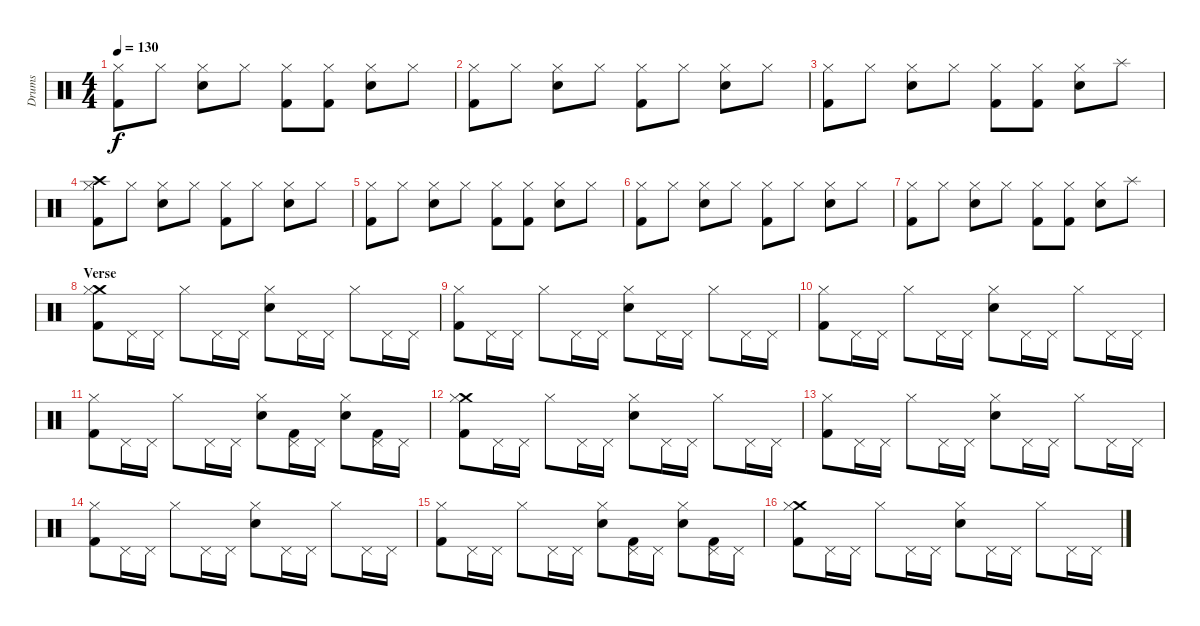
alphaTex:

\track ("Drums" "Drums") {instrument percussion}
\staff {score}
\articulation defaults
\ts (4 4)
\tempo 130
\clef neutral
\ks c
("Hi-Hat (closed)" "Kick (hit) 2").8{dy f} "Hi-Hat (closed)".8 ("Hi-Hat (closed)" "Electric Snare (hit)").8 "Hi-Hat (closed)".8 ("Hi-Hat (closed)" "Kick (hit) 2").8 ("Hi-Hat (closed)" "Kick (hit) 2").8 ("Hi-Hat (closed)" "Electric Snare (hit)").8 "Hi-Hat (closed)".8 |
("Hi-Hat (closed)" "Kick (hit) 2").8 "Hi-Hat (closed)".8 ("Hi-Hat (closed)" "Electric Snare (hit)").8 "Hi-Hat (closed)".8 ("Hi-Hat (closed)" "Kick (hit) 2").8 "Hi-Hat (closed)".8 ("Hi-Hat (closed)" "Electric Snare (hit)").8 "Hi-Hat (closed)".8 |
("Hi-Hat (closed)" "Kick (hit) 2").8 "Hi-Hat (closed)".8 ("Hi-Hat (closed)" "Electric Snare (hit)").8 "Hi-Hat (closed)".8 ("Hi-Hat (closed)" "Kick (hit) 2").8 ("Hi-Hat (closed)" "Kick (hit) 2").8 ("Hi-Hat (closed)" "Electric Snare (hit)").8 "Splash (hit)".8 |
("Crash high (hit)" "Hi-Hat (closed)" "Kick (hit) 2").8 "Hi-Hat (closed)".8 ("Hi-Hat (closed)" "Electric Snare (hit)").8 "Hi-Hat (closed)".8 ("Hi-Hat (closed)" "Kick (hit) 2").8 "Hi-Hat (closed)".8 ("Hi-Hat (closed)" "Electric Snare (hit)").8 "Hi-Hat (closed)".8 |
("Hi-Hat (closed)" "Kick (hit) 2").8 "Hi-Hat (closed)".8 ("Hi-Hat (closed)" "Electric Snare (hit)").8 "Hi-Hat (closed)".8 ("Hi-Hat (closed)" "Kick (hit) 2").8 ("Hi-Hat (closed)" "Kick (hit) 2").8 ("Hi-Hat (closed)" "Electric Snare (hit)").8 "Hi-Hat (closed)".8 |
("Hi-Hat (closed)" "Kick (hit) 2").8 "Hi-Hat (closed)".8 ("Hi-Hat (closed)" "Electric Snare (hit)").8 "Hi-Hat (closed)".8 ("Hi-Hat (closed)" "Kick (hit) 2").8 "Hi-Hat (closed)".8 ("Hi-Hat (closed)" "Electric Snare (hit)").8 "Hi-Hat (closed)".8 |
("Hi-Hat (closed)" "Kick (hit) 2").8 "Hi-Hat (closed)".8 ("Hi-Hat (closed)" "Electric Snare (hit)").8 "Hi-Hat (closed)".8 ("Hi-Hat (closed)" "Kick (hit) 2").8 ("Hi-Hat (closed)" "Kick (hit) 2").8 ("Hi-Hat (closed)" "Electric Snare (hit)").8 "Splash (hit)".8 |
\section ("" "Verse")
("Crash medium (hit)" "Hi-Hat (closed)" "Kick (hit) 2").8 "Pedal Hi-Hat (hit)".16 "Pedal Hi-Hat (hit)".16 "Hi-Hat (closed)".8 "Pedal Hi-Hat (hit)".16 "Pedal Hi-Hat (hit)".16 ("Hi-Hat (closed)" "Electric Snare (hit)").8 "Pedal Hi-Hat (hit)".16 "Pedal Hi-Hat (hit)".16 "Hi-Hat (closed)".8 "Pedal Hi-Hat (hit)".16 "Pedal Hi-Hat (hit)".16 |
("Hi-Hat (closed)" "Kick (hit) 2").8 "Pedal Hi-Hat (hit)".16 "Pedal Hi-Hat (hit)".16 "Hi-Hat (closed)".8 "Pedal Hi-Hat (hit)".16 "Pedal Hi-Hat (hit)".16 ("Hi-Hat (closed)" "Electric Snare (hit)").8 "Pedal Hi-Hat (hit)".16 "Pedal Hi-Hat (hit)".16 "Hi-Hat (closed)".8 "Pedal Hi-Hat (hit)".16 "Pedal Hi-Hat (hit)".16 |
("Hi-Hat (closed)" "Kick (hit) 2").8 "Pedal Hi-Hat (hit)".16 "Pedal Hi-Hat (hit)".16 "Hi-Hat (closed)".8 "Pedal Hi-Hat (hit)".16 "Pedal Hi-Hat (hit)".16 ("Hi-Hat (closed)" "Electric Snare (hit)").8 "Pedal Hi-Hat (hit)".16 "Pedal Hi-Hat (hit)".16 "Hi-Hat (closed)".8 "Pedal Hi-Hat (hit)".16 "Pedal Hi-Hat (hit)".16 |
("Hi-Hat (closed)" "Kick (hit) 2").8 "Pedal Hi-Hat (hit)".16 "Pedal Hi-Hat (hit)".16 "Hi-Hat (closed)".8 "Pedal Hi-Hat (hit)".16 "Pedal Hi-Hat (hit)".16 ("Hi-Hat (closed)" "Electric Snare (hit)").8 ("Pedal Hi-Hat (hit)" "Kick (hit) 2").16 "Pedal Hi-Hat (hit)".16 ("Hi-Hat (closed)" "Electric Snare (hit)").8 ("Pedal Hi-Hat (hit)" "Kick (hit) 2").16 "Pedal Hi-Hat (hit)".16 |
("Crash medium (hit)" "Hi-Hat (closed)" "Kick (hit) 2").8 "Pedal Hi-Hat (hit)".16 "Pedal Hi-Hat (hit)".16 "Hi-Hat (closed)".8 "Pedal Hi-Hat (hit)".16 "Pedal Hi-Hat (hit)".16 ("Hi-Hat (closed)" "Electric Snare (hit)").8 "Pedal Hi-Hat (hit)".16 "Pedal Hi-Hat (hit)".16 "Hi-Hat (closed)".8 "Pedal Hi-Hat (hit)".16 "Pedal Hi-Hat (hit)".16 |
("Hi-Hat (closed)" "Kick (hit) 2").8 "Pedal Hi-Hat (hit)".16 "Pedal Hi-Hat (hit)".16 "Hi-Hat (closed)".8 "Pedal Hi-Hat (hit)".16 "Pedal Hi-Hat (hit)".16 ("Hi-Hat (closed)" "Electric Snare (hit)").8 "Pedal Hi-Hat (hit)".16 "Pedal Hi-Hat (hit)".16 "Hi-Hat (closed)".8 "Pedal Hi-Hat (hit)".16 "Pedal Hi-Hat (hit)".16 |
("Hi-Hat (closed)" "Kick (hit) 2").8 "Pedal Hi-Hat (hit)".16 "Pedal Hi-Hat (hit)".16 "Hi-Hat (closed)".8 "Pedal Hi-Hat (hit)".16 "Pedal Hi-Hat (hit)".16 ("Hi-Hat (closed)" "Electric Snare (hit)").8 "Pedal Hi-Hat (hit)".16 "Pedal Hi-Hat (hit)".16 "Hi-Hat (closed)".8 "Pedal Hi-Hat (hit)".16 "Pedal Hi-Hat (hit)".16 |
("Hi-Hat (closed)" "Kick (hit) 2").8 "Pedal Hi-Hat (hit)".16 "Pedal Hi-Hat (hit)".16 "Hi-Hat (closed)".8 "Pedal Hi-Hat (hit)".16 "Pedal Hi-Hat (hit)".16 ("Hi-Hat (closed)" "Electric Snare (hit)").8 ("Pedal Hi-Hat (hit)" "Kick (hit) 2").16 "Pedal Hi-Hat (hit)".16 ("Hi-Hat (closed)" "Electric Snare (hit)").8 ("Pedal Hi-Hat (hit)" "Kick (hit) 2").16 "Pedal Hi-Hat (hit)".16 |
("Crash medium (hit)" "Hi-Hat (closed)" "Kick (hit) 2").8 "Pedal Hi-Hat (hit)".16 "Pedal Hi-Hat (hit)".16 "Hi-Hat (closed)".8 "Pedal Hi-Hat (hit)".16 "Pedal Hi-Hat (hit)".16 ("Hi-Hat (closed)" "Electric Snare (hit)").8 "Pedal Hi-Hat (hit)".16 "Pedal Hi-Hat (hit)".16 "Hi-Hat (closed)".8 "Pedal Hi-Hat (hit)".16 "Pedal Hi-Hat (hit)".16
